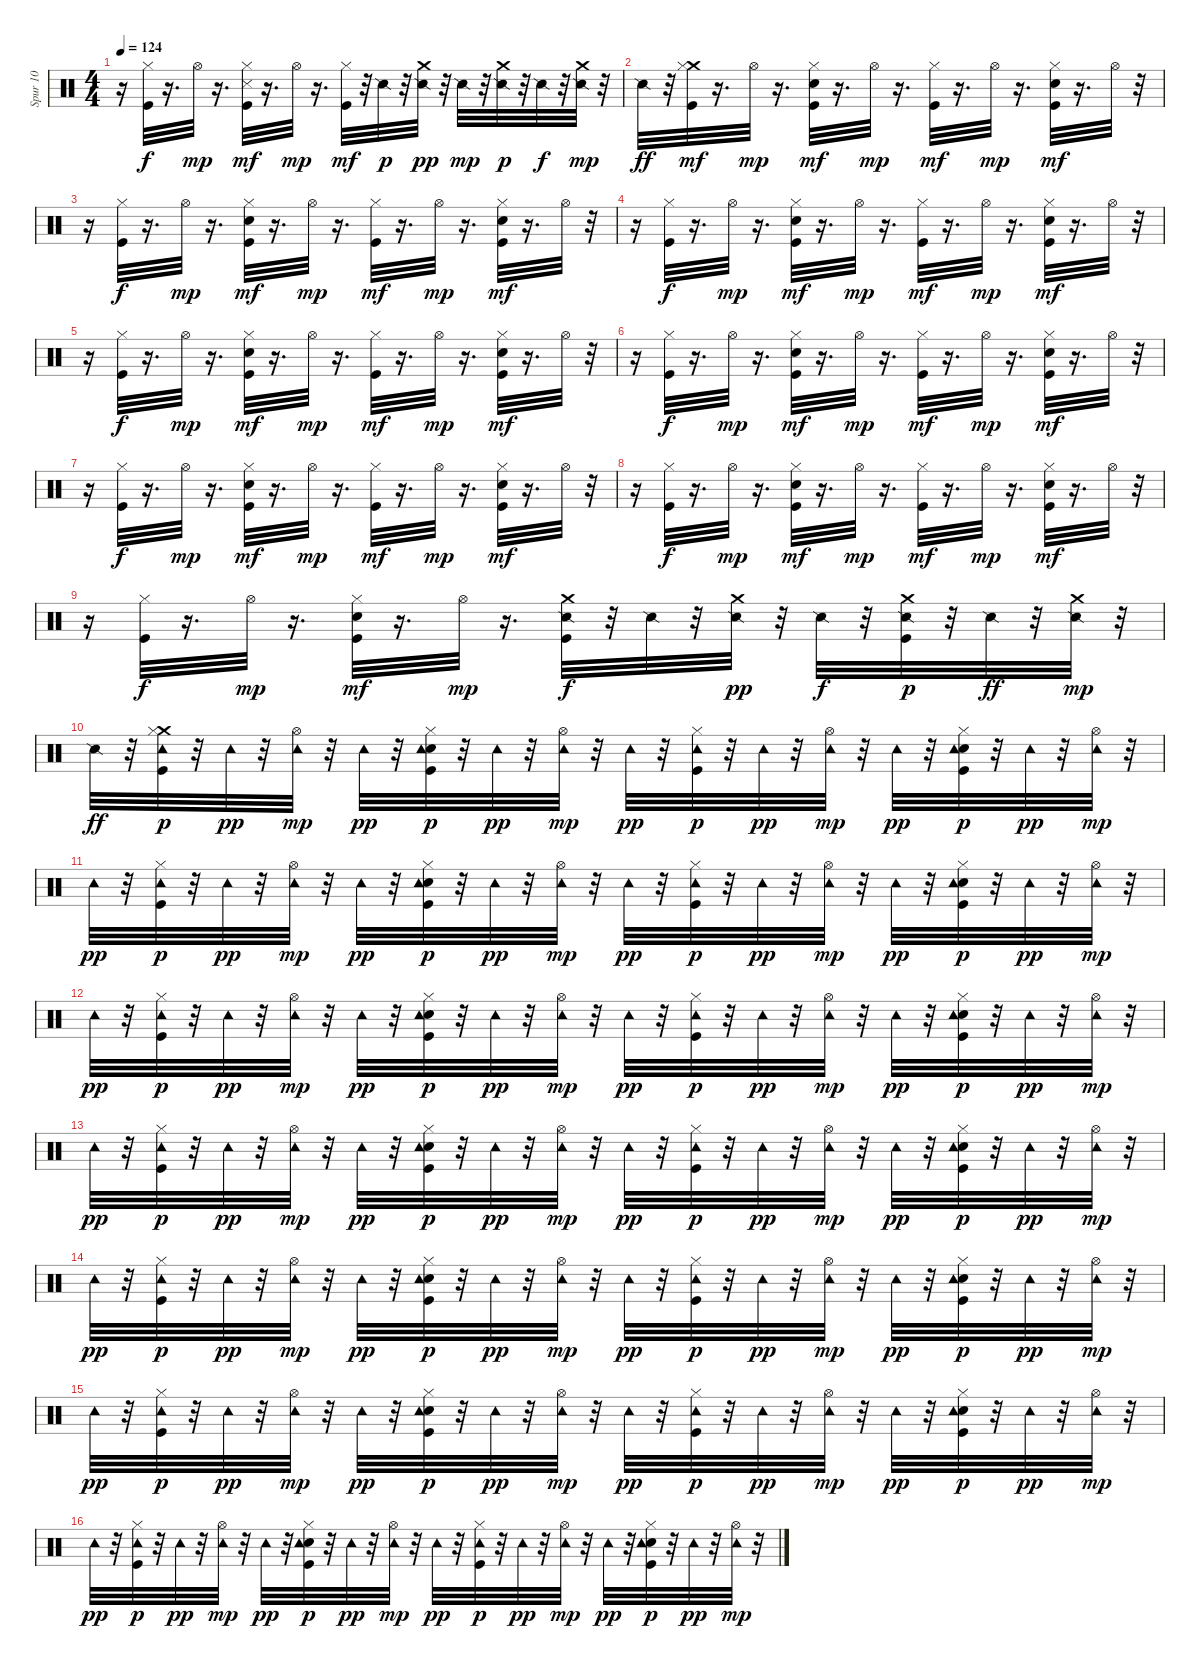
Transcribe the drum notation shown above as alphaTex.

\track ("Spur 10" "Spur 10") {instrument percussion}
\staff {score}
\articulation defaults
\ts (4 4)
\tempo 124
\clef neutral
\ks c
r.16{dy mf} ("Kick (hit)" "Hi-Hat (closed)").32{dy f} r.16{d} "Hi-Hat (open)".32{dy mp} r.16{d} ("Kick (hit)" "Snare (side stick) 3" "Hi-Hat (closed)").32{dy mf} r.16{d} "Hi-Hat (open)".32{dy mp} r.16{d} ("Kick (hit)" "Hi-Hat (closed)").32{dy mf} r.32 "Snare (side stick) 2".32{dy p balance 12} r.32 ("Snare (side stick) 2" "Crash medium (hit)").32{dy pp balance 10} r.32 "Snare (side stick) 2".32{dy mp} r.32 ("Snare (side stick) 2" "Crash medium (hit)").32{dy p balance 6} r.32 "Snare (side stick) 2".32{dy f} r.32 ("Snare (side stick) 2" "Crash medium (hit)").32{dy mp balance 2} r.32 |
"Snare (side stick) 2".32{dy ff} r.32 ("Crash medium (hit)" "Kick (hit)" "Hi-Hat (closed)").32{dy mf balance 8} r.16{d} "Hi-Hat (open)".32{dy mp} r.16{d} ("Kick (hit)" "Snare (hit) 2" "Hi-Hat (closed)").32{dy mf} r.16{d} "Hi-Hat (open)".32{dy mp} r.16{d} ("Kick (hit)" "Hi-Hat (closed)").32{dy mf} r.16{d} "Hi-Hat (open)".32{dy mp} r.16{d} ("Kick (hit)" "Snare (hit) 2" "Hi-Hat (closed)").32{dy mf} r.16{d} "Hi-Hat (open)".32 r.32 |
r.16 ("Kick (hit)" "Hi-Hat (closed)").32{dy f} r.16{d} "Hi-Hat (open)".32{dy mp} r.16{d} ("Kick (hit)" "Snare (hit) 2" "Hi-Hat (closed)").32{dy mf} r.16{d} "Hi-Hat (open)".32{dy mp} r.16{d} ("Kick (hit)" "Hi-Hat (closed)").32{dy mf} r.16{d} "Hi-Hat (open)".32{dy mp} r.16{d} ("Kick (hit)" "Snare (hit) 2" "Hi-Hat (closed)").32{dy mf} r.16{d} "Hi-Hat (open)".32 r.32 |
r.16 ("Kick (hit)" "Hi-Hat (closed)").32{dy f} r.16{d} "Hi-Hat (open)".32{dy mp} r.16{d} ("Kick (hit)" "Snare (hit) 2" "Hi-Hat (closed)").32{dy mf} r.16{d} "Hi-Hat (open)".32{dy mp} r.16{d} ("Kick (hit)" "Hi-Hat (closed)").32{dy mf} r.16{d} "Hi-Hat (open)".32{dy mp} r.16{d} ("Kick (hit)" "Snare (hit) 2" "Hi-Hat (closed)").32{dy mf} r.16{d} "Hi-Hat (open)".32 r.32 |
r.16 ("Kick (hit)" "Hi-Hat (closed)").32{dy f} r.16{d} "Hi-Hat (open)".32{dy mp} r.16{d} ("Kick (hit)" "Snare (hit) 2" "Hi-Hat (closed)").32{dy mf} r.16{d} "Hi-Hat (open)".32{dy mp} r.16{d} ("Kick (hit)" "Hi-Hat (closed)").32{dy mf} r.16{d} "Hi-Hat (open)".32{dy mp} r.16{d} ("Kick (hit)" "Snare (hit) 2" "Hi-Hat (closed)").32{dy mf} r.16{d} "Hi-Hat (open)".32 r.32 |
r.16 ("Kick (hit)" "Hi-Hat (closed)").32{dy f} r.16{d} "Hi-Hat (open)".32{dy mp} r.16{d} ("Kick (hit)" "Snare (hit) 2" "Hi-Hat (closed)").32{dy mf} r.16{d} "Hi-Hat (open)".32{dy mp} r.16{d} ("Kick (hit)" "Hi-Hat (closed)").32{dy mf} r.16{d} "Hi-Hat (open)".32{dy mp} r.16{d} ("Kick (hit)" "Snare (hit) 2" "Hi-Hat (closed)").32{dy mf} r.16{d} "Hi-Hat (open)".32 r.32 |
r.16 ("Kick (hit)" "Hi-Hat (closed)").32{dy f} r.16{d} "Hi-Hat (open)".32{dy mp} r.16{d} ("Kick (hit)" "Snare (hit) 2" "Hi-Hat (closed)").32{dy mf} r.16{d} "Hi-Hat (open)".32{dy mp} r.16{d} ("Kick (hit)" "Hi-Hat (closed)").32{dy mf} r.16{d} "Hi-Hat (open)".32{dy mp} r.16{d} ("Kick (hit)" "Snare (hit) 2" "Hi-Hat (closed)").32{dy mf} r.16{d} "Hi-Hat (open)".32 r.32 |
r.16 ("Kick (hit)" "Hi-Hat (closed)").32{dy f} r.16{d} "Hi-Hat (open)".32{dy mp} r.16{d} ("Kick (hit)" "Snare (hit) 2" "Hi-Hat (closed)").32{dy mf} r.16{d} "Hi-Hat (open)".32{dy mp} r.16{d} ("Kick (hit)" "Hi-Hat (closed)").32{dy mf} r.16{d} "Hi-Hat (open)".32{dy mp} r.16{d} ("Kick (hit)" "Snare (hit) 2" "Hi-Hat (closed)").32{dy mf} r.16{d} "Hi-Hat (open)".32 r.32 |
r.16 ("Kick (hit)" "Hi-Hat (closed)").32{dy f} r.16{d} "Hi-Hat (open)".32{dy mp} r.16{d} ("Kick (hit)" "Snare (hit) 2" "Hi-Hat (closed)").32{dy mf} r.16{d} "Hi-Hat (open)".32{dy mp} r.16{d} ("Snare (side stick) 2" "Kick (hit)" "Crash medium (hit)").32{dy f balance 10} r.32 "Snare (side stick) 2".32 r.32 ("Snare (side stick) 2" "Crash medium (hit)").32{dy pp balance 14} r.32 "Snare (side stick) 2".32{dy f} r.32 ("Snare (side stick) 2" "Kick (hit)" "Crash medium (hit)").32{dy p balance 7} r.32 "Snare (side stick) 2".32{dy ff} r.32 ("Snare (side stick) 2" "Crash medium (hit)").32{dy mp balance 0} r.32 |
"Snare (side stick) 2".32{dy ff} r.32 ("Crash medium (hit)" "Kick (hit)" "Hi-Hat (closed)" "Tambourine (hit)").32{dy p balance 8} r.32 "Tambourine (hit)".32{dy pp} r.32 ("Hi-Hat (open)" "Tambourine (hit)").32{dy mp} r.32 "Tambourine (hit)".32{dy pp} r.32 ("Kick (hit)" "Snare (hit) 2" "Hi-Hat (closed)" "Tambourine (hit)").32{dy p} r.32 "Tambourine (hit)".32{dy pp} r.32 ("Hi-Hat (open)" "Tambourine (hit)").32{dy mp} r.32 "Tambourine (hit)".32{dy pp} r.32 ("Kick (hit)" "Hi-Hat (closed)" "Tambourine (hit)").32{dy p} r.32 "Tambourine (hit)".32{dy pp} r.32 ("Hi-Hat (open)" "Tambourine (hit)").32{dy mp} r.32 "Tambourine (hit)".32{dy pp} r.32 ("Kick (hit)" "Snare (hit) 2" "Hi-Hat (closed)" "Tambourine (hit)").32{dy p} r.32 "Tambourine (hit)".32{dy pp} r.32 ("Hi-Hat (open)" "Tambourine (hit)").32{dy mp} r.32 |
"Tambourine (hit)".32{dy pp} r.32 ("Kick (hit)" "Hi-Hat (closed)" "Tambourine (hit)").32{dy p} r.32 "Tambourine (hit)".32{dy pp} r.32 ("Hi-Hat (open)" "Tambourine (hit)").32{dy mp} r.32 "Tambourine (hit)".32{dy pp} r.32 ("Kick (hit)" "Snare (hit) 2" "Hi-Hat (closed)" "Tambourine (hit)").32{dy p} r.32 "Tambourine (hit)".32{dy pp} r.32 ("Hi-Hat (open)" "Tambourine (hit)").32{dy mp} r.32 "Tambourine (hit)".32{dy pp} r.32 ("Kick (hit)" "Hi-Hat (closed)" "Tambourine (hit)").32{dy p} r.32 "Tambourine (hit)".32{dy pp} r.32 ("Hi-Hat (open)" "Tambourine (hit)").32{dy mp} r.32 "Tambourine (hit)".32{dy pp} r.32 ("Kick (hit)" "Snare (hit) 2" "Hi-Hat (closed)" "Tambourine (hit)").32{dy p} r.32 "Tambourine (hit)".32{dy pp} r.32 ("Hi-Hat (open)" "Tambourine (hit)").32{dy mp} r.32 |
"Tambourine (hit)".32{dy pp} r.32 ("Kick (hit)" "Hi-Hat (closed)" "Tambourine (hit)").32{dy p} r.32 "Tambourine (hit)".32{dy pp} r.32 ("Hi-Hat (open)" "Tambourine (hit)").32{dy mp} r.32 "Tambourine (hit)".32{dy pp} r.32 ("Kick (hit)" "Snare (hit) 2" "Hi-Hat (closed)" "Tambourine (hit)").32{dy p} r.32 "Tambourine (hit)".32{dy pp} r.32 ("Hi-Hat (open)" "Tambourine (hit)").32{dy mp} r.32 "Tambourine (hit)".32{dy pp} r.32 ("Kick (hit)" "Hi-Hat (closed)" "Tambourine (hit)").32{dy p} r.32 "Tambourine (hit)".32{dy pp} r.32 ("Hi-Hat (open)" "Tambourine (hit)").32{dy mp} r.32 "Tambourine (hit)".32{dy pp} r.32 ("Kick (hit)" "Snare (hit) 2" "Hi-Hat (closed)" "Tambourine (hit)").32{dy p} r.32 "Tambourine (hit)".32{dy pp} r.32 ("Hi-Hat (open)" "Tambourine (hit)").32{dy mp} r.32 |
"Tambourine (hit)".32{dy pp} r.32 ("Kick (hit)" "Hi-Hat (closed)" "Tambourine (hit)").32{dy p} r.32 "Tambourine (hit)".32{dy pp} r.32 ("Hi-Hat (open)" "Tambourine (hit)").32{dy mp} r.32 "Tambourine (hit)".32{dy pp} r.32 ("Kick (hit)" "Snare (hit) 2" "Hi-Hat (closed)" "Tambourine (hit)").32{dy p} r.32 "Tambourine (hit)".32{dy pp} r.32 ("Hi-Hat (open)" "Tambourine (hit)").32{dy mp} r.32 "Tambourine (hit)".32{dy pp} r.32 ("Kick (hit)" "Hi-Hat (closed)" "Tambourine (hit)").32{dy p} r.32 "Tambourine (hit)".32{dy pp} r.32 ("Hi-Hat (open)" "Tambourine (hit)").32{dy mp} r.32 "Tambourine (hit)".32{dy pp} r.32 ("Kick (hit)" "Snare (hit) 2" "Hi-Hat (closed)" "Tambourine (hit)").32{dy p} r.32 "Tambourine (hit)".32{dy pp} r.32 ("Hi-Hat (open)" "Tambourine (hit)").32{dy mp} r.32 |
"Tambourine (hit)".32{dy pp} r.32 ("Kick (hit)" "Hi-Hat (closed)" "Tambourine (hit)").32{dy p} r.32 "Tambourine (hit)".32{dy pp} r.32 ("Hi-Hat (open)" "Tambourine (hit)").32{dy mp} r.32 "Tambourine (hit)".32{dy pp} r.32 ("Kick (hit)" "Snare (hit) 2" "Hi-Hat (closed)" "Tambourine (hit)").32{dy p} r.32 "Tambourine (hit)".32{dy pp} r.32 ("Hi-Hat (open)" "Tambourine (hit)").32{dy mp} r.32 "Tambourine (hit)".32{dy pp} r.32 ("Kick (hit)" "Hi-Hat (closed)" "Tambourine (hit)").32{dy p} r.32 "Tambourine (hit)".32{dy pp} r.32 ("Hi-Hat (open)" "Tambourine (hit)").32{dy mp} r.32 "Tambourine (hit)".32{dy pp} r.32 ("Kick (hit)" "Snare (hit) 2" "Hi-Hat (closed)" "Tambourine (hit)").32{dy p} r.32 "Tambourine (hit)".32{dy pp} r.32 ("Hi-Hat (open)" "Tambourine (hit)").32{dy mp} r.32 |
"Tambourine (hit)".32{dy pp} r.32 ("Kick (hit)" "Hi-Hat (closed)" "Tambourine (hit)").32{dy p} r.32 "Tambourine (hit)".32{dy pp} r.32 ("Hi-Hat (open)" "Tambourine (hit)").32{dy mp} r.32 "Tambourine (hit)".32{dy pp} r.32 ("Kick (hit)" "Snare (hit) 2" "Hi-Hat (closed)" "Tambourine (hit)").32{dy p} r.32 "Tambourine (hit)".32{dy pp} r.32 ("Hi-Hat (open)" "Tambourine (hit)").32{dy mp} r.32 "Tambourine (hit)".32{dy pp} r.32 ("Kick (hit)" "Hi-Hat (closed)" "Tambourine (hit)").32{dy p} r.32 "Tambourine (hit)".32{dy pp} r.32 ("Hi-Hat (open)" "Tambourine (hit)").32{dy mp} r.32 "Tambourine (hit)".32{dy pp} r.32 ("Kick (hit)" "Snare (hit) 2" "Hi-Hat (closed)" "Tambourine (hit)").32{dy p} r.32 "Tambourine (hit)".32{dy pp} r.32 ("Hi-Hat (open)" "Tambourine (hit)").32{dy mp} r.32 |
"Tambourine (hit)".32{dy pp} r.32 ("Kick (hit)" "Hi-Hat (closed)" "Tambourine (hit)").32{dy p} r.32 "Tambourine (hit)".32{dy pp} r.32 ("Hi-Hat (open)" "Tambourine (hit)").32{dy mp} r.32 "Tambourine (hit)".32{dy pp} r.32 ("Kick (hit)" "Snare (hit) 2" "Hi-Hat (closed)" "Tambourine (hit)").32{dy p} r.32 "Tambourine (hit)".32{dy pp} r.32 ("Hi-Hat (open)" "Tambourine (hit)").32{dy mp} r.32 "Tambourine (hit)".32{dy pp} r.32 ("Kick (hit)" "Hi-Hat (closed)" "Tambourine (hit)").32{dy p} r.32 "Tambourine (hit)".32{dy pp} r.32 ("Hi-Hat (open)" "Tambourine (hit)").32{dy mp} r.32 "Tambourine (hit)".32{dy pp} r.32 ("Kick (hit)" "Snare (hit) 2" "Hi-Hat (closed)" "Tambourine (hit)").32{dy p} r.32 "Tambourine (hit)".32{dy pp} r.32 ("Hi-Hat (open)" "Tambourine (hit)").32{dy mp} r.32
